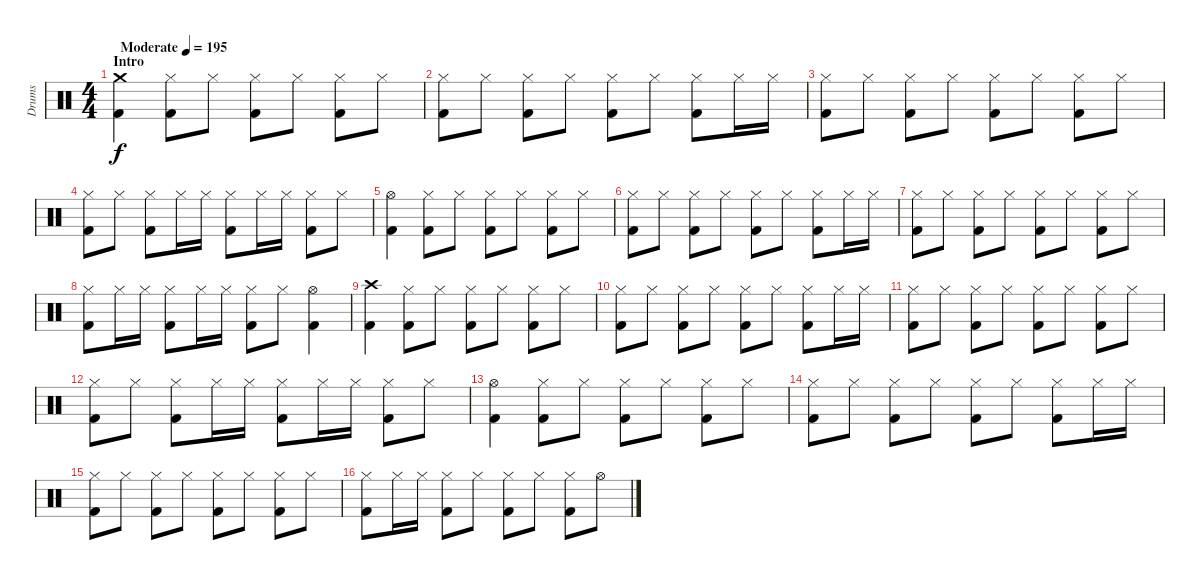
\track ("Drums" "Drums") {instrument percussion}
\staff {score}
\articulation defaults
\ts (4 4)
\section ("" "Intro")
\tempo (195 "Moderate")
\clef neutral
\ks c
("Crash medium (hit)" "Kick (hit) 2").4{dy f} ("Hi-Hat (closed)" "Kick (hit) 2").8 "Hi-Hat (closed)".8 ("Hi-Hat (closed)" "Kick (hit) 2").8 "Hi-Hat (closed)".8 ("Hi-Hat (closed)" "Kick (hit) 2").8 "Hi-Hat (closed)".8 |
("Hi-Hat (closed)" "Kick (hit) 2").8 "Hi-Hat (closed)".8 ("Hi-Hat (closed)" "Kick (hit) 2").8 "Hi-Hat (closed)".8 ("Hi-Hat (closed)" "Kick (hit) 2").8 "Hi-Hat (closed)".8 ("Hi-Hat (closed)" "Kick (hit) 2").8 "Hi-Hat (closed)".16 "Hi-Hat (closed)".16 |
("Hi-Hat (closed)" "Kick (hit) 2").8 "Hi-Hat (closed)".8 ("Hi-Hat (closed)" "Kick (hit) 2").8 "Hi-Hat (closed)".8 ("Hi-Hat (closed)" "Kick (hit) 2").8 "Hi-Hat (closed)".8 ("Hi-Hat (closed)" "Kick (hit) 2").8 "Hi-Hat (closed)".8 |
("Hi-Hat (closed)" "Kick (hit) 2").8 "Hi-Hat (closed)".8 ("Hi-Hat (closed)" "Kick (hit) 2").8 "Hi-Hat (closed)".16 "Hi-Hat (closed)".16 ("Hi-Hat (closed)" "Kick (hit) 2").8 "Hi-Hat (closed)".16 "Hi-Hat (closed)".16 ("Hi-Hat (closed)" "Kick (hit) 2").8 "Hi-Hat (closed)".8 |
("Hi-Hat (open)" "Kick (hit) 2").4 ("Hi-Hat (closed)" "Kick (hit) 2").8 "Hi-Hat (closed)".8 ("Hi-Hat (closed)" "Kick (hit) 2").8 "Hi-Hat (closed)".8 ("Hi-Hat (closed)" "Kick (hit) 2").8 "Hi-Hat (closed)".8 |
("Hi-Hat (closed)" "Kick (hit) 2").8 "Hi-Hat (closed)".8 ("Hi-Hat (closed)" "Kick (hit) 2").8 "Hi-Hat (closed)".8 ("Hi-Hat (closed)" "Kick (hit) 2").8 "Hi-Hat (closed)".8 ("Hi-Hat (closed)" "Kick (hit) 2").8 "Hi-Hat (closed)".16 "Hi-Hat (closed)".16 |
("Hi-Hat (closed)" "Kick (hit) 2").8 "Hi-Hat (closed)".8 ("Hi-Hat (closed)" "Kick (hit) 2").8 "Hi-Hat (closed)".8 ("Hi-Hat (closed)" "Kick (hit) 2").8 "Hi-Hat (closed)".8 ("Hi-Hat (closed)" "Kick (hit) 2").8 "Hi-Hat (closed)".8 |
("Hi-Hat (closed)" "Kick (hit) 2").8 "Hi-Hat (closed)".16 "Hi-Hat (closed)".16 ("Hi-Hat (closed)" "Kick (hit) 2").8 "Hi-Hat (closed)".16 "Hi-Hat (closed)".16 ("Hi-Hat (closed)" "Kick (hit) 2").8 "Hi-Hat (closed)".8 ("Hi-Hat (open)" "Kick (hit) 2").4 |
("Crash high (hit)" "Kick (hit) 2").4 ("Hi-Hat (closed)" "Kick (hit) 2").8 "Hi-Hat (closed)".8 ("Hi-Hat (closed)" "Kick (hit) 2").8 "Hi-Hat (closed)".8 ("Hi-Hat (closed)" "Kick (hit) 2").8 "Hi-Hat (closed)".8 |
("Hi-Hat (closed)" "Kick (hit) 2").8 "Hi-Hat (closed)".8 ("Hi-Hat (closed)" "Kick (hit) 2").8 "Hi-Hat (closed)".8 ("Hi-Hat (closed)" "Kick (hit) 2").8 "Hi-Hat (closed)".8 ("Hi-Hat (closed)" "Kick (hit) 2").8 "Hi-Hat (closed)".16 "Hi-Hat (closed)".16 |
("Hi-Hat (closed)" "Kick (hit) 2").8 "Hi-Hat (closed)".8 ("Hi-Hat (closed)" "Kick (hit) 2").8 "Hi-Hat (closed)".8 ("Hi-Hat (closed)" "Kick (hit) 2").8 "Hi-Hat (closed)".8 ("Hi-Hat (closed)" "Kick (hit) 2").8 "Hi-Hat (closed)".8 |
("Hi-Hat (closed)" "Kick (hit) 2").8 "Hi-Hat (closed)".8 ("Hi-Hat (closed)" "Kick (hit) 2").8 "Hi-Hat (closed)".16 "Hi-Hat (closed)".16 ("Hi-Hat (closed)" "Kick (hit) 2").8 "Hi-Hat (closed)".16 "Hi-Hat (closed)".16 ("Hi-Hat (closed)" "Kick (hit) 2").8 "Hi-Hat (closed)".8 |
("Hi-Hat (open)" "Kick (hit) 2").4 ("Hi-Hat (closed)" "Kick (hit) 2").8 "Hi-Hat (closed)".8 ("Hi-Hat (closed)" "Kick (hit) 2").8 "Hi-Hat (closed)".8 ("Hi-Hat (closed)" "Kick (hit) 2").8 "Hi-Hat (closed)".8 |
("Hi-Hat (closed)" "Kick (hit) 2").8 "Hi-Hat (closed)".8 ("Hi-Hat (closed)" "Kick (hit) 2").8 "Hi-Hat (closed)".8 ("Hi-Hat (closed)" "Kick (hit) 2").8 "Hi-Hat (closed)".8 ("Hi-Hat (closed)" "Kick (hit) 2").8 "Hi-Hat (closed)".16 "Hi-Hat (closed)".16 |
("Hi-Hat (closed)" "Kick (hit) 2").8 "Hi-Hat (closed)".8 ("Hi-Hat (closed)" "Kick (hit) 2").8 "Hi-Hat (closed)".8 ("Hi-Hat (closed)" "Kick (hit) 2").8 "Hi-Hat (closed)".8 ("Hi-Hat (closed)" "Kick (hit) 2").8 "Hi-Hat (closed)".8 |
("Hi-Hat (closed)" "Kick (hit) 2").8 "Hi-Hat (closed)".16 "Hi-Hat (closed)".16 ("Hi-Hat (closed)" "Kick (hit) 2").8 "Hi-Hat (closed)".8 ("Hi-Hat (closed)" "Kick (hit) 2").8 "Hi-Hat (closed)".8 ("Hi-Hat (closed)" "Kick (hit) 2").8 "Hi-Hat (open)".8
